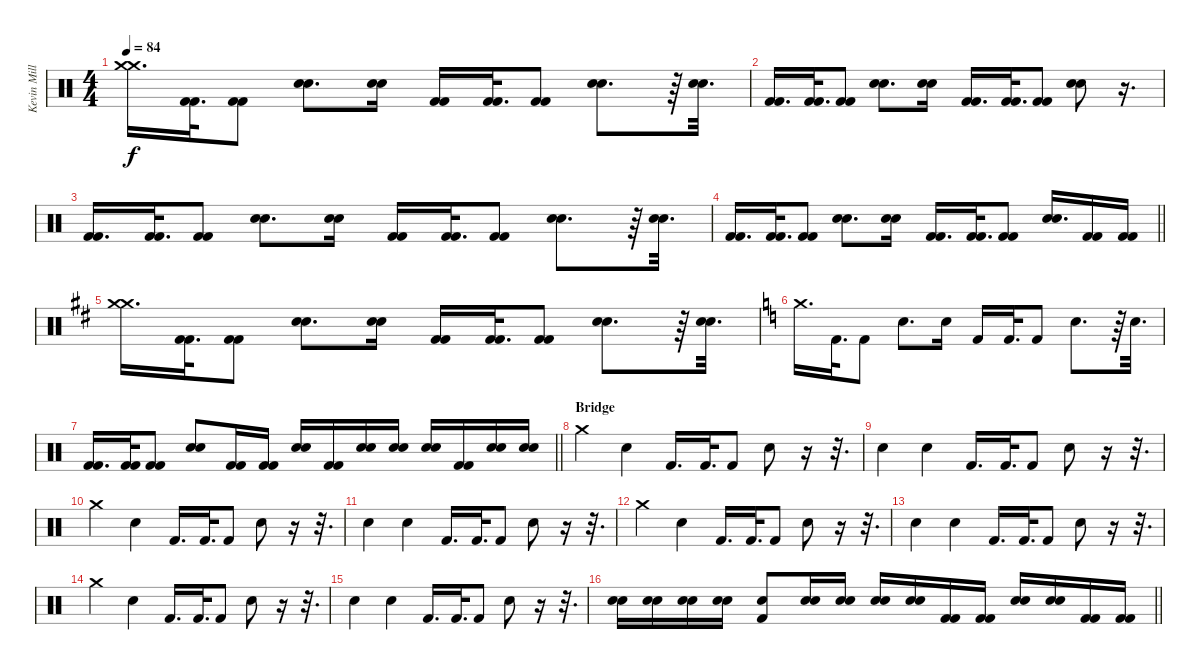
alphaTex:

\track ("Kevin Miller (Drums)" "Kevin Mill") {instrument percussion}
\staff {score}
\articulation defaults
\ts (4 4)
\tempo 84
\clef neutral
\ks c
("Crash medium (hit)" "Crash medium (hit)").16{d dy f} ("Kick (hit) 2" "Kick (hit) 2").32{d} ("Kick (hit) 2" "Kick (hit) 2").8 ("Electric Snare (hit)" "Electric Snare (hit)").8{d} ("Electric Snare (hit)" "Electric Snare (hit)").16 ("Kick (hit) 2" "Kick (hit) 2").16 ("Kick (hit) 2" "Kick (hit) 2").32{d} ("Kick (hit) 2" "Kick (hit) 2").8 ("Electric Snare (hit)" "Electric Snare (hit)").8{d} r.64 ("Electric Snare (hit)" "Electric Snare (hit)").32{d} |
("Kick (hit) 2" "Kick (hit) 2").16{d} ("Kick (hit) 2" "Kick (hit) 2").32{d} ("Kick (hit) 2" "Kick (hit) 2").8 ("Electric Snare (hit)" "Electric Snare (hit)").8{d} ("Electric Snare (hit)" "Electric Snare (hit)").16 ("Kick (hit) 2" "Kick (hit) 2").16{d} ("Kick (hit) 2" "Kick (hit) 2").32{d} ("Kick (hit) 2" "Kick (hit) 2").8 ("Electric Snare (hit)" "Electric Snare (hit)").8 r.16{d} |
("Kick (hit) 2" "Kick (hit) 2").16{d} ("Kick (hit) 2" "Kick (hit) 2").32{d} ("Kick (hit) 2" "Kick (hit) 2").8 ("Electric Snare (hit)" "Electric Snare (hit)").8{d} ("Electric Snare (hit)" "Electric Snare (hit)").16 ("Kick (hit) 2" "Kick (hit) 2").16 ("Kick (hit) 2" "Kick (hit) 2").32{d} ("Kick (hit) 2" "Kick (hit) 2").8 ("Electric Snare (hit)" "Electric Snare (hit)").8{d} r.64 ("Electric Snare (hit)" "Electric Snare (hit)").32{d} |
\barLineRight lightlight
("Kick (hit) 2" "Kick (hit) 2").16{d} ("Kick (hit) 2" "Kick (hit) 2").32{d} ("Kick (hit) 2" "Kick (hit) 2").8 ("Electric Snare (hit)" "Electric Snare (hit)").8{d} ("Electric Snare (hit)" "Electric Snare (hit)").16 ("Kick (hit) 2" "Kick (hit) 2").16{d} ("Kick (hit) 2" "Kick (hit) 2").32{d} ("Kick (hit) 2" "Kick (hit) 2").8 ("Electric Snare (hit)" "Electric Snare (hit)").16{d} ("Kick (hit) 2" "Kick (hit) 2").16 ("Kick (hit) 2" "Kick (hit) 2").16 |
\ks d
("Crash medium (hit)" "Crash medium (hit)").16{d} ("Kick (hit) 2" "Kick (hit) 2").32{d} ("Kick (hit) 2" "Kick (hit) 2").8 ("Electric Snare (hit)" "Electric Snare (hit)").8{d} ("Electric Snare (hit)" "Electric Snare (hit)").16 ("Kick (hit) 2" "Kick (hit) 2").16 ("Kick (hit) 2" "Kick (hit) 2").32{d} ("Kick (hit) 2" "Kick (hit) 2").8 ("Electric Snare (hit)" "Electric Snare (hit)").8{d} r.64 ("Electric Snare (hit)" "Electric Snare (hit)").32{d} |
\ks c "Crash medium (hit)".16{d} "Kick (hit) 2".32{d} "Kick (hit) 2".8 "Electric Snare (hit)".8{d} "Electric Snare (hit)".16 "Kick (hit) 2".16 "Kick (hit) 2".32{d} "Kick (hit) 2".8 "Electric Snare (hit)".8{d}
r.64 "Electric Snare (hit)".32{d} |
\barLineRight lightlight
("Kick (hit) 2" "Kick (hit) 2").16{d} ("Kick (hit) 2" "Kick (hit) 2").32 ("Kick (hit) 2" "Kick (hit) 2").8 ("Electric Snare (hit)" "Electric Snare (hit)").8 ("Kick (hit) 2" "Kick (hit) 2").16 ("Kick (hit) 2" "Kick (hit) 2").16 ("Electric Snare (hit)" "Electric Snare (hit)").16 ("Kick (hit) 2" "Kick (hit) 2").16 ("Electric Snare (hit)" "Electric Snare (hit)").16 ("Electric Snare (hit)" "Electric Snare (hit)").16 ("Electric Snare (hit)" "Electric Snare (hit)").16 ("Kick (hit) 2" "Kick (hit) 2").16 ("Electric Snare (hit)" "Electric Snare (hit)").16 ("Electric Snare (hit)" "Electric Snare (hit)").16 |
\section ("" "Bridge")
"Crash medium (hit)".4 "Electric Snare (hit)".4 "Kick (hit) 2".16{d} "Kick (hit) 2".32{d} "Kick (hit) 2".8 "Electric Snare (hit)".8 r.16 r.32{d} |
"Electric Snare (hit)".4 "Electric Snare (hit)".4 "Kick (hit) 2".16{d} "Kick (hit) 2".32{d} "Kick (hit) 2".8 "Electric Snare (hit)".8 r.16 r.32{d} |
"Crash medium (hit)".4 "Electric Snare (hit)".4 "Kick (hit) 2".16{d} "Kick (hit) 2".32{d} "Kick (hit) 2".8 "Electric Snare (hit)".8 r.16 r.32{d} |
"Electric Snare (hit)".4 "Electric Snare (hit)".4 "Kick (hit) 2".16{d} "Kick (hit) 2".32{d} "Kick (hit) 2".8 "Electric Snare (hit)".8 r.16 r.32{d} |
"Crash medium (hit)".4 "Electric Snare (hit)".4 "Kick (hit) 2".16{d} "Kick (hit) 2".32{d} "Kick (hit) 2".8 "Electric Snare (hit)".8 r.16 r.32{d} |
"Electric Snare (hit)".4 "Electric Snare (hit)".4 "Kick (hit) 2".16{d} "Kick (hit) 2".32{d} "Kick (hit) 2".8 "Electric Snare (hit)".8 r.16 r.32{d} |
"Crash medium (hit)".4 "Electric Snare (hit)".4 "Kick (hit) 2".16{d} "Kick (hit) 2".32{d} "Kick (hit) 2".8 "Electric Snare (hit)".8 r.16 r.32{d} |
"Electric Snare (hit)".4 "Electric Snare (hit)".4 "Kick (hit) 2".16{d} "Kick (hit) 2".32{d} "Kick (hit) 2".8 "Electric Snare (hit)".8 r.16 r.32{d} |
\barLineRight lightlight
("Electric Snare (hit)" "Electric Snare (hit)").16 ("Electric Snare (hit)" "Electric Snare (hit)").16 ("Electric Snare (hit)" "Electric Snare (hit)").16 ("Electric Snare (hit)" "Electric Snare (hit)").16 ("Electric Snare (hit)" "Kick (hit) 2").8 ("Electric Snare (hit)" "Electric Snare (hit)").16 ("Electric Snare (hit)" "Electric Snare (hit)").16 ("Electric Snare (hit)" "Electric Snare (hit)").16 ("Electric Snare (hit)" "Electric Snare (hit)").16 ("Kick (hit) 2" "Kick (hit) 2").16 ("Kick (hit) 2" "Kick (hit) 2").16 ("Electric Snare (hit)" "Electric Snare (hit)").16 ("Electric Snare (hit)" "Electric Snare (hit)").16 ("Kick (hit) 2" "Kick (hit) 2").16 ("Kick (hit) 2" "Kick (hit) 2").16
